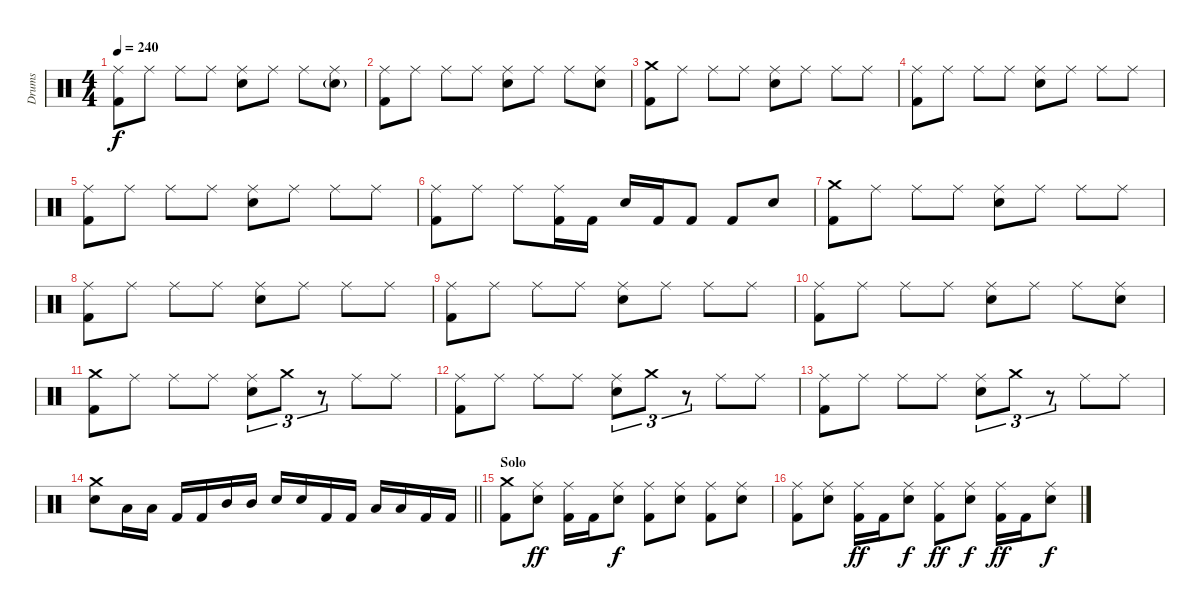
\track ("Drums" "Drums") {instrument percussion}
\staff {score}
\articulation defaults
\ts (4 4)
\tempo 240
\clef neutral
\ks c
("Ride (middle)" "Kick (hit) 2").8{dy f} "Ride (middle)".8 "Ride (middle)".8 "Ride (middle)".8 ("Ride (middle)" "Electric Snare (hit)").8 "Ride (middle)".8 "Ride (middle)".8 ("Ride (middle)" "Electric Snare (hit)"{g}).8 |
("Ride (middle)" "Kick (hit) 2").8 "Ride (middle)".8 "Ride (middle)".8 "Ride (middle)".8 ("Ride (middle)" "Electric Snare (hit)").8 "Ride (middle)".8 "Ride (middle)".8 ("Ride (middle)" "Electric Snare (hit)").8 |
("Crash medium (hit)" "Kick (hit) 2").8 "Ride (middle)".8 "Ride (middle)".8 "Ride (middle)".8 ("Ride (middle)" "Electric Snare (hit)").8 "Ride (middle)".8 "Ride (middle)".8 "Ride (middle)".8 |
("Ride (middle)" "Kick (hit) 2").8 "Ride (middle)".8 "Ride (middle)".8 "Ride (middle)".8 ("Ride (middle)" "Electric Snare (hit)").8 "Ride (middle)".8 "Ride (middle)".8 "Ride (middle)".8 |
("Ride (middle)" "Kick (hit) 2").8 "Ride (middle)".8 "Ride (middle)".8 "Ride (middle)".8 ("Ride (middle)" "Electric Snare (hit)").8 "Ride (middle)".8 "Ride (middle)".8 "Ride (middle)".8 |
("Ride (middle)" "Kick (hit) 2").8 "Ride (middle)".8 "Ride (middle)".8 ("Ride (middle)" "Kick (hit) 2").16 "Kick (hit) 2".16 "Electric Snare (hit)".16 "Kick (hit) 2".16 "Kick (hit) 2".8 "Kick (hit) 2".8 "Electric Snare (hit)".8 |
("Crash medium (hit)" "Kick (hit) 2").8 "Ride (middle)".8 "Ride (middle)".8 "Ride (middle)".8 ("Ride (middle)" "Electric Snare (hit)").8 "Ride (middle)".8 "Ride (middle)".8 "Ride (middle)".8 |
("Ride (middle)" "Kick (hit) 2").8 "Ride (middle)".8 "Ride (middle)".8 "Ride (middle)".8 ("Ride (middle)" "Electric Snare (hit)").8 "Ride (middle)".8 "Ride (middle)".8 "Ride (middle)".8 |
("Ride (middle)" "Kick (hit) 2").8 "Ride (middle)".8 "Ride (middle)".8 "Ride (middle)".8 ("Ride (middle)" "Electric Snare (hit)").8 "Ride (middle)".8 "Ride (middle)".8 "Ride (middle)".8 |
("Ride (middle)" "Kick (hit) 2").8 "Ride (middle)".8 "Ride (middle)".8 "Ride (middle)".8 ("Ride (middle)" "Electric Snare (hit)").8 "Ride (middle)".8 "Ride (middle)".8 ("Ride (middle)" "Electric Snare (hit)").8 |
("Crash medium (hit)" "Kick (hit) 2").8 "Ride (middle)".8 "Ride (middle)".8 "Ride (middle)".8 ("Ride (middle)" "Electric Snare (hit)").8{tu (3 2)} "Crash medium (hit)".8{tu (3 2)} r.8{tu (3 2)} "Ride (middle)".8 "Ride (middle)".8 |
("Ride (middle)" "Kick (hit) 2").8 "Ride (middle)".8 "Ride (middle)".8 "Ride (middle)".8 ("Ride (middle)" "Electric Snare (hit)").8{tu (3 2)} "Crash medium (hit)".8{tu (3 2)} r.8{tu (3 2)} "Ride (middle)".8 "Ride (middle)".8 |
("Ride (middle)" "Kick (hit) 2").8 "Ride (middle)".8 "Ride (middle)".8 "Ride (middle)".8 ("Ride (middle)" "Electric Snare (hit)").8{tu (3 2)} "Crash medium (hit)".8{tu (3 2)} r.8{tu (3 2)} "Ride (middle)".8 "Ride (middle)".8 |
\barLineRight lightlight
("Crash medium (hit)" "Electric Snare (hit)").8 "Low Tom (hit)".16 "Low Tom (hit)".16 "Kick (hit) 2".16 "Kick (hit) 2".16 "Mid Tom (hit)".16 "Mid Tom (hit)".16 "Electric Snare (hit)".16 "Electric Snare (hit)".16 "Kick (hit) 2".16 "Kick (hit) 2".16 "Low Tom (hit)".16 "Low Tom (hit)".16 "Kick (hit) 2".16 "Kick (hit) 2".16 |
\section ("" "Solo")
("Crash medium (hit)" "Kick (hit) 2").8 ("Ride (middle)" "Electric Snare (hit)").8{dy ff} ("Ride (middle)" "Kick (hit) 2").16 "Kick (hit) 2".16 ("Ride (middle)" "Electric Snare (hit)").8{dy f} ("Ride (middle)" "Kick (hit) 2").8 ("Ride (middle)" "Electric Snare (hit)").8 ("Ride (middle)" "Kick (hit) 2").8 ("Ride (middle)" "Electric Snare (hit)").8 |
("Ride (middle)" "Kick (hit) 2").8 ("Ride (middle)" "Electric Snare (hit)").8 ("Ride (middle)" "Kick (hit) 2").16{dy ff} "Kick (hit) 2".16 ("Ride (middle)" "Electric Snare (hit)").8{dy f} ("Ride (middle)" "Kick (hit) 2").8{dy ff} ("Ride (middle)" "Electric Snare (hit)").8{dy f} ("Ride (middle)" "Kick (hit) 2").16{dy ff} "Kick (hit) 2".16 ("Ride (middle)" "Electric Snare (hit)").8{dy f}
